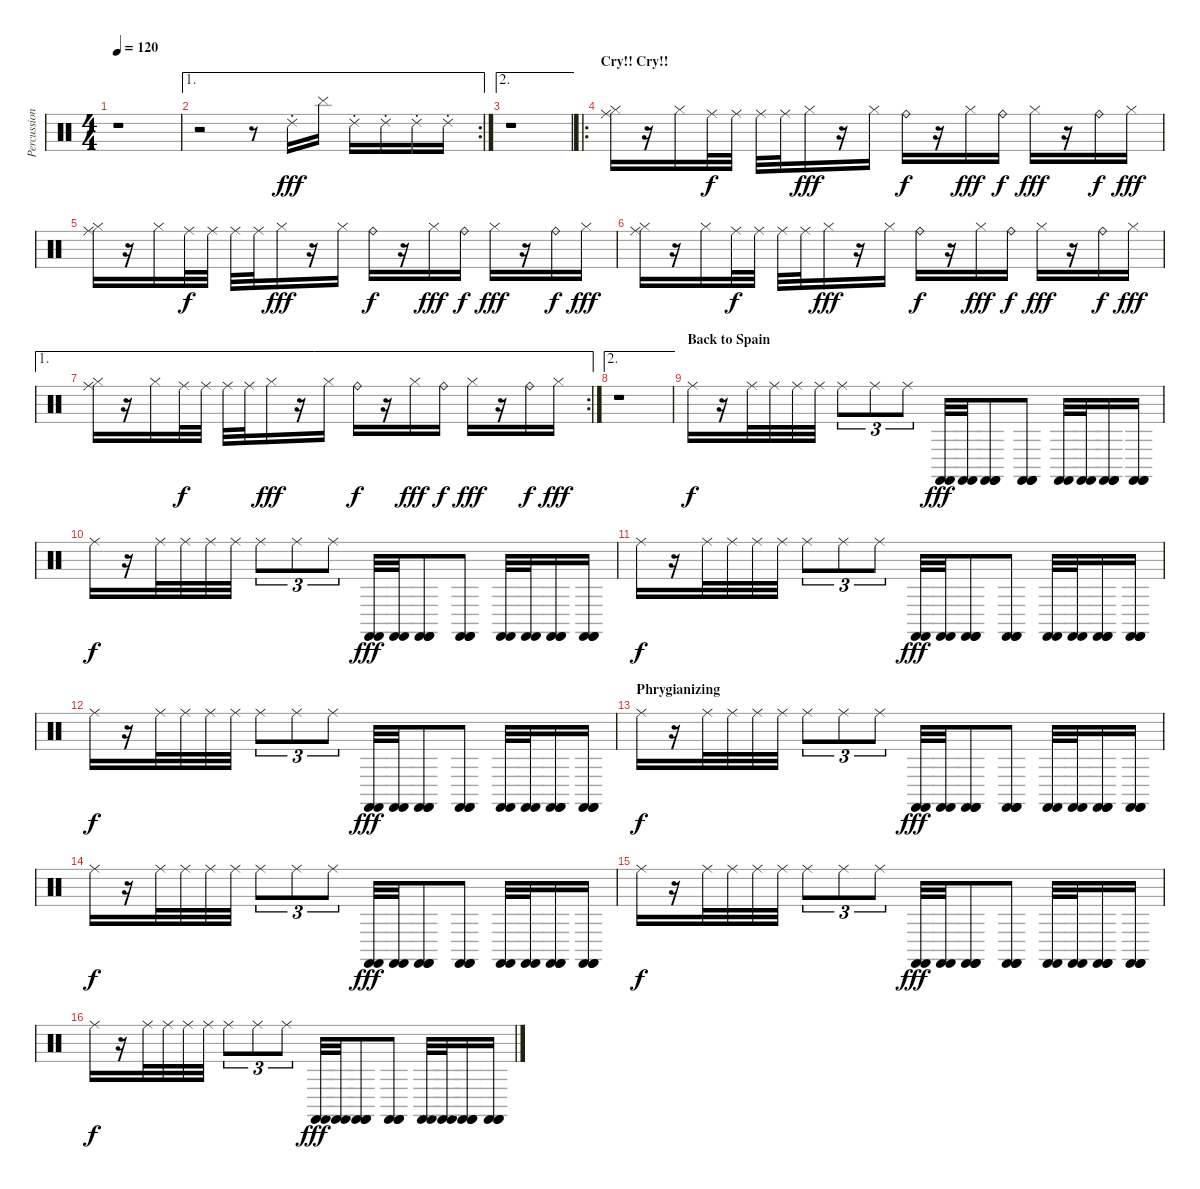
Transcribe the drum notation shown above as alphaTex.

\track ("Percussion" "Percussion") {instrument percussion}
\staff {score}
\articulation defaults
\ts (4 4)
\tempo 120
\clef neutral
\ks c
r.1{dy f} |
\ae 1
\rc 2
r.2 r.8 "Ride (choke) 2".16{dy fff} "Cymbal (hit)".16 "Ride (choke) 2".16 "Ride (choke) 2".16 "Ride (choke) 2".16 "Ride (choke) 2".16 |
\ae 2
r.1 |
\ro
\section ("" "Cry!! Cry!!")
("Ride (middle)" "Hi-Hat (closed)").16 r.16 "Hi-Hat (closed)".16 "Ride (middle)".32{dy f} "Ride (middle)".32 "Ride (middle)".32 "Ride (middle)".32 "Hi-Hat (closed)".16{dy fff} r.16 "Hi-Hat (closed)".16 "Ride (bell)".16{dy f} r.16 "Hi-Hat (closed)".16{dy fff} "Ride (bell)".16{dy f} "Hi-Hat (closed)".16{dy fff} r.16 "Ride (bell)".16{dy f} "Hi-Hat (closed)".16{dy fff} |
("Ride (middle)" "Hi-Hat (closed)").16 r.16 "Hi-Hat (closed)".16 "Ride (middle)".32{dy f} "Ride (middle)".32 "Ride (middle)".32 "Ride (middle)".32 "Hi-Hat (closed)".16{dy fff} r.16 "Hi-Hat (closed)".16 "Ride (bell)".16{dy f} r.16 "Hi-Hat (closed)".16{dy fff} "Ride (bell)".16{dy f} "Hi-Hat (closed)".16{dy fff} r.16 "Ride (bell)".16{dy f} "Hi-Hat (closed)".16{dy fff} |
("Ride (middle)" "Hi-Hat (closed)").16 r.16 "Hi-Hat (closed)".16 "Ride (middle)".32{dy f} "Ride (middle)".32 "Ride (middle)".32 "Ride (middle)".32 "Hi-Hat (closed)".16{dy fff} r.16 "Hi-Hat (closed)".16 "Ride (bell)".16{dy f} r.16 "Hi-Hat (closed)".16{dy fff} "Ride (bell)".16{dy f} "Hi-Hat (closed)".16{dy fff} r.16 "Ride (bell)".16{dy f} "Hi-Hat (closed)".16{dy fff} |
\ae 1
\rc 2
("Ride (middle)" "Hi-Hat (closed)").16 r.16 "Hi-Hat (closed)".16 "Ride (middle)".32{dy f} "Ride (middle)".32 "Ride (middle)".32 "Ride (middle)".32 "Hi-Hat (closed)".16{dy fff} r.16 "Hi-Hat (closed)".16 "Ride (bell)".16{dy f} r.16 "Hi-Hat (closed)".16{dy fff} "Ride (bell)".16{dy f} "Hi-Hat (closed)".16{dy fff} r.16 "Ride (bell)".16{dy f} "Hi-Hat (closed)".16{dy fff} |
\ae 2
r.1 |
\section ("" "Back to Spain")
"Ride (middle)".16{dy f} r.16 "Ride (middle)".32 "Ride (middle)".32 "Ride (middle)".32 "Ride (middle)".32 "Ride (middle)".8{tu (3 2)} "Ride (middle)".8{tu (3 2)} "Ride (middle)".8{tu (3 2)} ("Castanets (hit)" "Castanets (hit)").32{dy fff} ("Castanets (hit)" "Castanets (hit)").32 ("Castanets (hit)" "Castanets (hit)" "Castanets (hit)").8 ("Castanets (hit)" "Castanets (hit)" "Castanets (hit)").8 ("Castanets (hit)" "Castanets (hit)").32 ("Castanets (hit)" "Castanets (hit)").32 ("Castanets (hit)" "Castanets (hit)" "Castanets (hit)").16 ("Castanets (hit)" "Castanets (hit)" "Castanets (hit)").16 |
"Ride (middle)".16{dy f} r.16 "Ride (middle)".32 "Ride (middle)".32 "Ride (middle)".32 "Ride (middle)".32 "Ride (middle)".8{tu (3 2)} "Ride (middle)".8{tu (3 2)} "Ride (middle)".8{tu (3 2)} ("Castanets (hit)" "Castanets (hit)").32{dy fff} ("Castanets (hit)" "Castanets (hit)").32 ("Castanets (hit)" "Castanets (hit)" "Castanets (hit)").8 ("Castanets (hit)" "Castanets (hit)" "Castanets (hit)").8 ("Castanets (hit)" "Castanets (hit)").32 ("Castanets (hit)" "Castanets (hit)").32 ("Castanets (hit)" "Castanets (hit)" "Castanets (hit)").16 ("Castanets (hit)" "Castanets (hit)" "Castanets (hit)").16 |
"Ride (middle)".16{dy f} r.16 "Ride (middle)".32 "Ride (middle)".32 "Ride (middle)".32 "Ride (middle)".32 "Ride (middle)".8{tu (3 2)} "Ride (middle)".8{tu (3 2)} "Ride (middle)".8{tu (3 2)} ("Castanets (hit)" "Castanets (hit)").32{dy fff} ("Castanets (hit)" "Castanets (hit)").32 ("Castanets (hit)" "Castanets (hit)" "Castanets (hit)").8 ("Castanets (hit)" "Castanets (hit)" "Castanets (hit)").8 ("Castanets (hit)" "Castanets (hit)").32 ("Castanets (hit)" "Castanets (hit)").32 ("Castanets (hit)" "Castanets (hit)" "Castanets (hit)").16 ("Castanets (hit)" "Castanets (hit)" "Castanets (hit)").16 |
"Ride (middle)".16{dy f} r.16 "Ride (middle)".32 "Ride (middle)".32 "Ride (middle)".32 "Ride (middle)".32 "Ride (middle)".8{tu (3 2)} "Ride (middle)".8{tu (3 2)} "Ride (middle)".8{tu (3 2)} ("Castanets (hit)" "Castanets (hit)").32{dy fff} ("Castanets (hit)" "Castanets (hit)").32 ("Castanets (hit)" "Castanets (hit)" "Castanets (hit)").8 ("Castanets (hit)" "Castanets (hit)" "Castanets (hit)").8 ("Castanets (hit)" "Castanets (hit)").32 ("Castanets (hit)" "Castanets (hit)").32 ("Castanets (hit)" "Castanets (hit)" "Castanets (hit)").16 ("Castanets (hit)" "Castanets (hit)" "Castanets (hit)").16 |
\section ("" "Phrygianizing")
"Ride (middle)".16{dy f} r.16 "Ride (middle)".32 "Ride (middle)".32 "Ride (middle)".32 "Ride (middle)".32 "Ride (middle)".8{tu (3 2)} "Ride (middle)".8{tu (3 2)} "Ride (middle)".8{tu (3 2)} ("Castanets (hit)" "Castanets (hit)").32{dy fff} ("Castanets (hit)" "Castanets (hit)").32 ("Castanets (hit)" "Castanets (hit)" "Castanets (hit)").8 ("Castanets (hit)" "Castanets (hit)" "Castanets (hit)").8 ("Castanets (hit)" "Castanets (hit)").32 ("Castanets (hit)" "Castanets (hit)").32 ("Castanets (hit)" "Castanets (hit)" "Castanets (hit)").16 ("Castanets (hit)" "Castanets (hit)" "Castanets (hit)").16 |
"Ride (middle)".16{dy f} r.16 "Ride (middle)".32 "Ride (middle)".32 "Ride (middle)".32 "Ride (middle)".32 "Ride (middle)".8{tu (3 2)} "Ride (middle)".8{tu (3 2)} "Ride (middle)".8{tu (3 2)} ("Castanets (hit)" "Castanets (hit)").32{dy fff} ("Castanets (hit)" "Castanets (hit)").32 ("Castanets (hit)" "Castanets (hit)" "Castanets (hit)").8 ("Castanets (hit)" "Castanets (hit)" "Castanets (hit)").8 ("Castanets (hit)" "Castanets (hit)").32 ("Castanets (hit)" "Castanets (hit)").32 ("Castanets (hit)" "Castanets (hit)" "Castanets (hit)").16 ("Castanets (hit)" "Castanets (hit)" "Castanets (hit)").16 |
"Ride (middle)".16{dy f} r.16 "Ride (middle)".32 "Ride (middle)".32 "Ride (middle)".32 "Ride (middle)".32 "Ride (middle)".8{tu (3 2)} "Ride (middle)".8{tu (3 2)} "Ride (middle)".8{tu (3 2)} ("Castanets (hit)" "Castanets (hit)").32{dy fff} ("Castanets (hit)" "Castanets (hit)").32 ("Castanets (hit)" "Castanets (hit)" "Castanets (hit)").8 ("Castanets (hit)" "Castanets (hit)" "Castanets (hit)").8 ("Castanets (hit)" "Castanets (hit)").32 ("Castanets (hit)" "Castanets (hit)").32 ("Castanets (hit)" "Castanets (hit)" "Castanets (hit)").16 ("Castanets (hit)" "Castanets (hit)" "Castanets (hit)").16 |
"Ride (middle)".16{dy f} r.16 "Ride (middle)".32 "Ride (middle)".32 "Ride (middle)".32 "Ride (middle)".32 "Ride (middle)".8{tu (3 2)} "Ride (middle)".8{tu (3 2)} "Ride (middle)".8{tu (3 2)} ("Castanets (hit)" "Castanets (hit)").32{dy fff} ("Castanets (hit)" "Castanets (hit)").32 ("Castanets (hit)" "Castanets (hit)" "Castanets (hit)").8 ("Castanets (hit)" "Castanets (hit)" "Castanets (hit)").8 ("Castanets (hit)" "Castanets (hit)").32 ("Castanets (hit)" "Castanets (hit)").32 ("Castanets (hit)" "Castanets (hit)" "Castanets (hit)").16 ("Castanets (hit)" "Castanets (hit)" "Castanets (hit)").16
